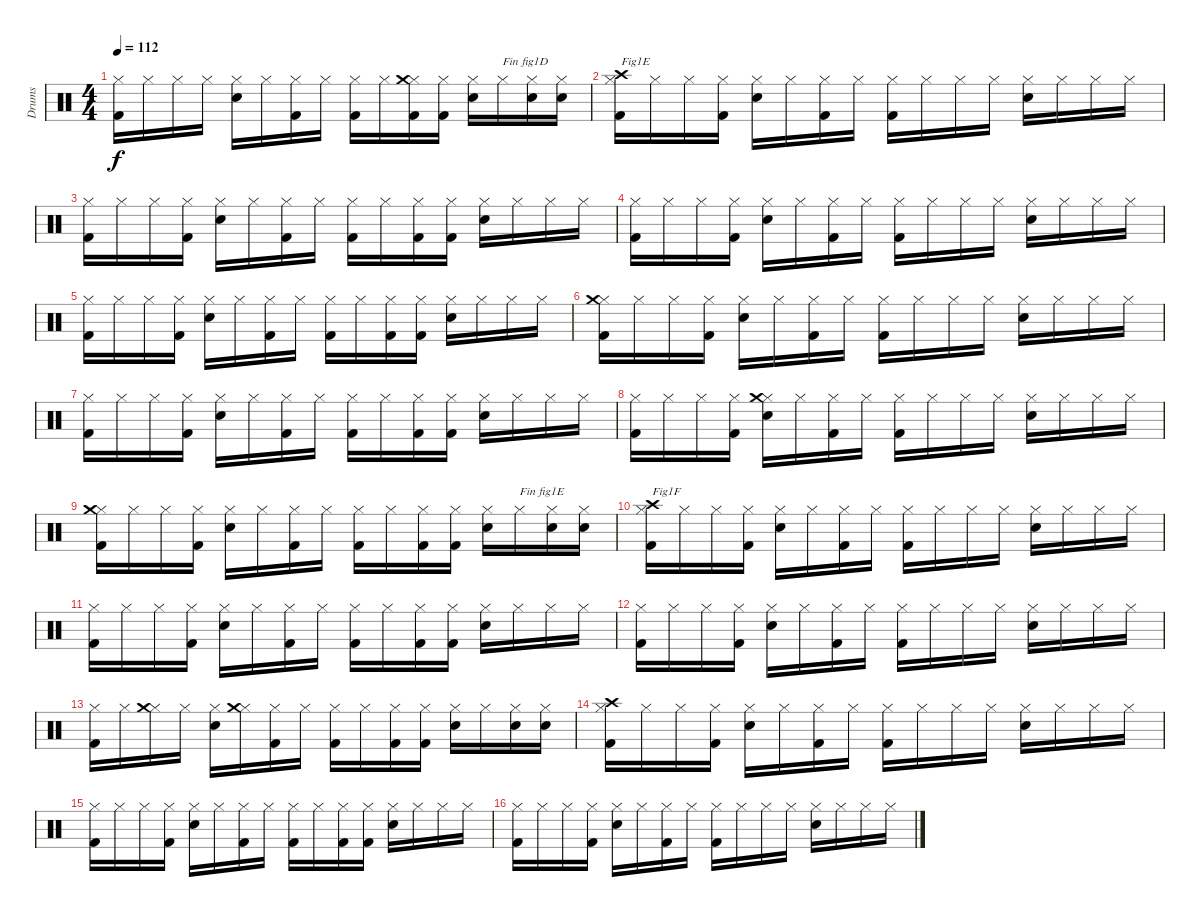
\track ("Drums" "Drums") {instrument percussion}
\staff {score}
\articulation defaults
\ts (4 4)
\tempo 112
\clef neutral
\ks c
("Kick (hit) 2" "Hi-Hat (closed)").16{dy f} "Hi-Hat (closed)".16 "Hi-Hat (closed)".16 "Hi-Hat (closed)".16 ("Electric Snare (hit)" "Hi-Hat (closed)").16 "Hi-Hat (closed)".16 ("Kick (hit) 2" "Hi-Hat (closed)").16 "Hi-Hat (closed)".16 ("Kick (hit) 2" "Hi-Hat (closed)").16 "Hi-Hat (closed)".16 ("Kick (hit) 2" "Hi-Hat (closed)" "Crash medium (hit)").16 ("Kick (hit) 2" "Hi-Hat (closed)").16 ("Electric Snare (hit)" "Hi-Hat (closed)").16 "Hi-Hat (closed)".16{txt "Fin fig1D"} ("Electric Snare (hit)" "Hi-Hat (closed)").16 ("Electric Snare (hit)" "Hi-Hat (closed)").16 |
("Kick (hit) 2" "Hi-Hat (closed)" "Crash high (hit)").16{txt "Fig1E"} "Hi-Hat (closed)".16 "Hi-Hat (closed)".16 ("Kick (hit) 2" "Hi-Hat (closed)").16 ("Electric Snare (hit)" "Hi-Hat (closed)").16 "Hi-Hat (closed)".16 ("Kick (hit) 2" "Hi-Hat (closed)").16 "Hi-Hat (closed)".16 ("Kick (hit) 2" "Hi-Hat (closed)").16 "Hi-Hat (closed)".16 "Hi-Hat (closed)".16 "Hi-Hat (closed)".16 ("Electric Snare (hit)" "Hi-Hat (closed)").16 "Hi-Hat (closed)".16 "Hi-Hat (closed)".16 "Hi-Hat (closed)".16 |
("Kick (hit) 2" "Hi-Hat (closed)").16 "Hi-Hat (closed)".16 "Hi-Hat (closed)".16 ("Kick (hit) 2" "Hi-Hat (closed)").16 ("Electric Snare (hit)" "Hi-Hat (closed)").16 "Hi-Hat (closed)".16 ("Kick (hit) 2" "Hi-Hat (closed)").16 "Hi-Hat (closed)".16 ("Kick (hit) 2" "Hi-Hat (closed)").16 "Hi-Hat (closed)".16 ("Kick (hit) 2" "Hi-Hat (closed)").16 ("Kick (hit) 2" "Hi-Hat (closed)").16 ("Electric Snare (hit)" "Hi-Hat (closed)").16 "Hi-Hat (closed)".16 "Hi-Hat (closed)".16 "Hi-Hat (closed)".16 |
("Kick (hit) 2" "Hi-Hat (closed)").16 "Hi-Hat (closed)".16 "Hi-Hat (closed)".16 ("Kick (hit) 2" "Hi-Hat (closed)").16 ("Electric Snare (hit)" "Hi-Hat (closed)").16 "Hi-Hat (closed)".16 ("Kick (hit) 2" "Hi-Hat (closed)").16 "Hi-Hat (closed)".16 ("Kick (hit) 2" "Hi-Hat (closed)").16 "Hi-Hat (closed)".16 "Hi-Hat (closed)".16 "Hi-Hat (closed)".16 ("Electric Snare (hit)" "Hi-Hat (closed)").16 "Hi-Hat (closed)".16 "Hi-Hat (closed)".16 "Hi-Hat (closed)".16 |
("Kick (hit) 2" "Hi-Hat (closed)").16 "Hi-Hat (closed)".16 "Hi-Hat (closed)".16 ("Kick (hit) 2" "Hi-Hat (closed)").16 ("Electric Snare (hit)" "Hi-Hat (closed)").16 "Hi-Hat (closed)".16 ("Kick (hit) 2" "Hi-Hat (closed)").16 "Hi-Hat (closed)".16 ("Kick (hit) 2" "Hi-Hat (closed)").16 "Hi-Hat (closed)".16 ("Kick (hit) 2" "Hi-Hat (closed)").16 ("Kick (hit) 2" "Hi-Hat (closed)").16 ("Electric Snare (hit)" "Hi-Hat (closed)").16 "Hi-Hat (closed)".16 "Hi-Hat (closed)".16 "Hi-Hat (closed)".16 |
("Kick (hit) 2" "Hi-Hat (closed)" "Crash medium (hit)").16 "Hi-Hat (closed)".16 "Hi-Hat (closed)".16 ("Kick (hit) 2" "Hi-Hat (closed)").16 ("Electric Snare (hit)" "Hi-Hat (closed)").16 "Hi-Hat (closed)".16 ("Kick (hit) 2" "Hi-Hat (closed)").16 "Hi-Hat (closed)".16 ("Kick (hit) 2" "Hi-Hat (closed)").16 "Hi-Hat (closed)".16 "Hi-Hat (closed)".16 "Hi-Hat (closed)".16 ("Electric Snare (hit)" "Hi-Hat (closed)").16 "Hi-Hat (closed)".16 "Hi-Hat (closed)".16 "Hi-Hat (closed)".16 |
("Kick (hit) 2" "Hi-Hat (closed)").16 "Hi-Hat (closed)".16 "Hi-Hat (closed)".16 ("Kick (hit) 2" "Hi-Hat (closed)").16 ("Electric Snare (hit)" "Hi-Hat (closed)").16 "Hi-Hat (closed)".16 ("Kick (hit) 2" "Hi-Hat (closed)").16 "Hi-Hat (closed)".16 ("Kick (hit) 2" "Hi-Hat (closed)").16 "Hi-Hat (closed)".16 ("Kick (hit) 2" "Hi-Hat (closed)").16 ("Kick (hit) 2" "Hi-Hat (closed)").16 ("Electric Snare (hit)" "Hi-Hat (closed)").16 "Hi-Hat (closed)".16 "Hi-Hat (closed)".16 "Hi-Hat (closed)".16 |
("Kick (hit) 2" "Hi-Hat (closed)").16 "Hi-Hat (closed)".16 "Hi-Hat (closed)".16 ("Kick (hit) 2" "Hi-Hat (closed)").16 ("Electric Snare (hit)" "Hi-Hat (closed)" "Crash medium (hit)").16 "Hi-Hat (closed)".16 ("Kick (hit) 2" "Hi-Hat (closed)").16 "Hi-Hat (closed)".16 ("Kick (hit) 2" "Hi-Hat (closed)").16 "Hi-Hat (closed)".16 "Hi-Hat (closed)".16 "Hi-Hat (closed)".16 ("Electric Snare (hit)" "Hi-Hat (closed)").16 "Hi-Hat (closed)".16 "Hi-Hat (closed)".16 "Hi-Hat (closed)".16 |
("Kick (hit) 2" "Hi-Hat (closed)" "Crash medium (hit)").16 "Hi-Hat (closed)".16 "Hi-Hat (closed)".16 ("Kick (hit) 2" "Hi-Hat (closed)").16 ("Electric Snare (hit)" "Hi-Hat (closed)").16 "Hi-Hat (closed)".16 ("Kick (hit) 2" "Hi-Hat (closed)").16 "Hi-Hat (closed)".16 ("Kick (hit) 2" "Hi-Hat (closed)").16 "Hi-Hat (closed)".16 ("Kick (hit) 2" "Hi-Hat (closed)").16 ("Kick (hit) 2" "Hi-Hat (closed)").16 ("Electric Snare (hit)" "Hi-Hat (closed)").16 "Hi-Hat (closed)".16{txt "Fin fig1E"} ("Electric Snare (hit)" "Hi-Hat (closed)").16 ("Electric Snare (hit)" "Hi-Hat (closed)").16 |
("Kick (hit) 2" "Hi-Hat (closed)" "Crash high (hit)").16{txt "Fig1F"} "Hi-Hat (closed)".16 "Hi-Hat (closed)".16 ("Kick (hit) 2" "Hi-Hat (closed)").16 ("Electric Snare (hit)" "Hi-Hat (closed)").16 "Hi-Hat (closed)".16 ("Kick (hit) 2" "Hi-Hat (closed)").16 "Hi-Hat (closed)".16 ("Kick (hit) 2" "Hi-Hat (closed)").16 "Hi-Hat (closed)".16 "Hi-Hat (closed)".16 "Hi-Hat (closed)".16 ("Electric Snare (hit)" "Hi-Hat (closed)").16 "Hi-Hat (closed)".16 "Hi-Hat (closed)".16 "Hi-Hat (closed)".16 |
("Kick (hit) 2" "Hi-Hat (closed)").16 "Hi-Hat (closed)".16 "Hi-Hat (closed)".16 ("Kick (hit) 2" "Hi-Hat (closed)").16 ("Electric Snare (hit)" "Hi-Hat (closed)").16 "Hi-Hat (closed)".16 ("Kick (hit) 2" "Hi-Hat (closed)").16 "Hi-Hat (closed)".16 ("Kick (hit) 2" "Hi-Hat (closed)").16 "Hi-Hat (closed)".16 ("Kick (hit) 2" "Hi-Hat (closed)").16 ("Kick (hit) 2" "Hi-Hat (closed)").16 ("Electric Snare (hit)" "Hi-Hat (closed)").16 "Hi-Hat (closed)".16 "Hi-Hat (closed)".16 "Hi-Hat (closed)".16 |
("Kick (hit) 2" "Hi-Hat (closed)").16 "Hi-Hat (closed)".16 "Hi-Hat (closed)".16 ("Kick (hit) 2" "Hi-Hat (closed)").16 ("Electric Snare (hit)" "Hi-Hat (closed)").16 "Hi-Hat (closed)".16 ("Kick (hit) 2" "Hi-Hat (closed)").16 "Hi-Hat (closed)".16 ("Kick (hit) 2" "Hi-Hat (closed)").16 "Hi-Hat (closed)".16 "Hi-Hat (closed)".16 "Hi-Hat (closed)".16 ("Electric Snare (hit)" "Hi-Hat (closed)").16 "Hi-Hat (closed)".16 "Hi-Hat (closed)".16 "Hi-Hat (closed)".16 |
("Kick (hit) 2" "Hi-Hat (closed)").16 "Hi-Hat (closed)".16 ("Hi-Hat (closed)" "Crash medium (hit)").16 "Hi-Hat (closed)".16 ("Electric Snare (hit)" "Hi-Hat (closed)").16 ("Hi-Hat (closed)" "Crash medium (hit)").16 ("Kick (hit) 2" "Hi-Hat (closed)").16 "Hi-Hat (closed)".16 ("Kick (hit) 2" "Hi-Hat (closed)").16 "Hi-Hat (closed)".16 ("Kick (hit) 2" "Hi-Hat (closed)").16 ("Kick (hit) 2" "Hi-Hat (closed)").16 ("Electric Snare (hit)" "Hi-Hat (closed)").16 "Hi-Hat (closed)".16 ("Electric Snare (hit)" "Hi-Hat (closed)").16 ("Electric Snare (hit)" "Hi-Hat (closed)").16 |
("Kick (hit) 2" "Hi-Hat (closed)" "Crash high (hit)").16 "Hi-Hat (closed)".16 "Hi-Hat (closed)".16 ("Kick (hit) 2" "Hi-Hat (closed)").16 ("Electric Snare (hit)" "Hi-Hat (closed)").16 "Hi-Hat (closed)".16 ("Kick (hit) 2" "Hi-Hat (closed)").16 "Hi-Hat (closed)".16 ("Kick (hit) 2" "Hi-Hat (closed)").16 "Hi-Hat (closed)".16 "Hi-Hat (closed)".16 "Hi-Hat (closed)".16 ("Electric Snare (hit)" "Hi-Hat (closed)").16 "Hi-Hat (closed)".16 "Hi-Hat (closed)".16 "Hi-Hat (closed)".16 |
("Kick (hit) 2" "Hi-Hat (closed)").16 "Hi-Hat (closed)".16 "Hi-Hat (closed)".16 ("Kick (hit) 2" "Hi-Hat (closed)").16 ("Electric Snare (hit)" "Hi-Hat (closed)").16 "Hi-Hat (closed)".16 ("Kick (hit) 2" "Hi-Hat (closed)").16 "Hi-Hat (closed)".16 ("Kick (hit) 2" "Hi-Hat (closed)").16 "Hi-Hat (closed)".16 ("Kick (hit) 2" "Hi-Hat (closed)").16 ("Kick (hit) 2" "Hi-Hat (closed)").16 ("Electric Snare (hit)" "Hi-Hat (closed)").16 "Hi-Hat (closed)".16 "Hi-Hat (closed)".16 "Hi-Hat (closed)".16 |
("Kick (hit) 2" "Hi-Hat (closed)").16 "Hi-Hat (closed)".16 "Hi-Hat (closed)".16 ("Kick (hit) 2" "Hi-Hat (closed)").16 ("Electric Snare (hit)" "Hi-Hat (closed)").16 "Hi-Hat (closed)".16 ("Kick (hit) 2" "Hi-Hat (closed)").16 "Hi-Hat (closed)".16 ("Kick (hit) 2" "Hi-Hat (closed)").16 "Hi-Hat (closed)".16 "Hi-Hat (closed)".16 "Hi-Hat (closed)".16 ("Electric Snare (hit)" "Hi-Hat (closed)").16 "Hi-Hat (closed)".16 "Hi-Hat (closed)".16 "Hi-Hat (closed)".16
